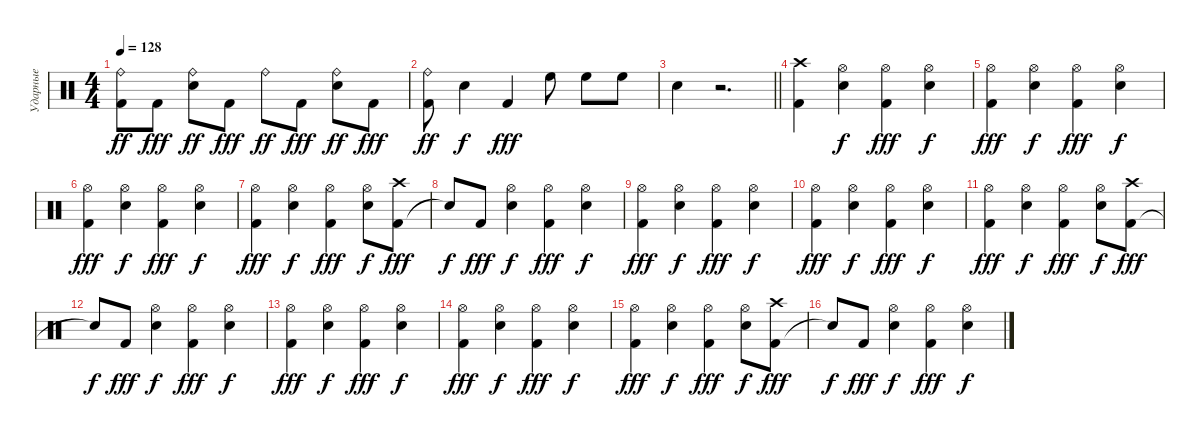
\track ("Ударные" "Ударные") {instrument percussion}
\staff {score}
\articulation defaults
\ts (4 4)
\tempo 128
\clef neutral
\ks c
("Kick (hit) 2" "Ride (bell)").8{dy ff} "Kick (hit) 2".8{dy fff} ("Snare (hit) 2" "Ride (bell)").8{dy ff} "Kick (hit) 2".8{dy fff} "Ride (bell)".8{dy ff} "Kick (hit) 2".8{dy fff} ("Snare (hit) 2" "Ride (bell)").8{dy ff} "Kick (hit) 2".8{dy fff} |
("Kick (hit) 2" "Ride (bell)").8{dy ff} "Snare (hit) 2".4{dy f} "Kick (hit) 2".4{dy fff} "High Floor Tom (hit)".8 "High Floor Tom (hit)".8 "High Floor Tom (hit)".8 |
\barLineRight lightlight "Snare (hit) 2".4
r.2{d} |
("Kick (hit) 2" "Crash high (hit)").4 ("Snare (hit) 2" "Hi-Hat (open)").4{dy f} ("Kick (hit) 2" "Hi-Hat (open)").4{dy fff} ("Snare (hit) 2" "Hi-Hat (open)").4{dy f} |
("Kick (hit) 2" "Hi-Hat (open)").4{dy fff} ("Snare (hit) 2" "Hi-Hat (open)").4{dy f} ("Kick (hit) 2" "Hi-Hat (open)").4{dy fff} ("Snare (hit) 2" "Hi-Hat (open)").4{dy f} |
("Kick (hit) 2" "Hi-Hat (open)").4{dy fff} ("Snare (hit) 2" "Hi-Hat (open)").4{dy f} ("Kick (hit) 2" "Hi-Hat (open)").4{dy fff} ("Snare (hit) 2" "Hi-Hat (open)").4{dy f} |
("Kick (hit) 2" "Hi-Hat (open)").4{dy fff} ("Snare (hit) 2" "Hi-Hat (open)").4{dy f} ("Kick (hit) 2" "Hi-Hat (open)").4{dy fff} ("Snare (hit) 2" "Hi-Hat (open)").8{dy f} ("Kick (hit) 2" "Crash high (hit)").8{dy fff} |
"Snare (hit)"{t}.8{dy f} "Kick (hit) 2".8{dy fff} ("Snare (hit) 2" "Hi-Hat (open)").4{dy f} ("Kick (hit) 2" "Hi-Hat (open)").4{dy fff} ("Snare (hit) 2" "Hi-Hat (open)").4{dy f} |
("Kick (hit) 2" "Hi-Hat (open)").4{dy fff} ("Snare (hit) 2" "Hi-Hat (open)").4{dy f} ("Kick (hit) 2" "Hi-Hat (open)").4{dy fff} ("Snare (hit) 2" "Hi-Hat (open)").4{dy f} |
("Kick (hit) 2" "Hi-Hat (open)").4{dy fff} ("Snare (hit) 2" "Hi-Hat (open)").4{dy f} ("Kick (hit) 2" "Hi-Hat (open)").4{dy fff} ("Snare (hit) 2" "Hi-Hat (open)").4{dy f} |
("Kick (hit) 2" "Hi-Hat (open)").4{dy fff} ("Snare (hit) 2" "Hi-Hat (open)").4{dy f} ("Kick (hit) 2" "Hi-Hat (open)").4{dy fff} ("Snare (hit) 2" "Hi-Hat (open)").8{dy f} ("Kick (hit) 2" "Crash high (hit)").8{dy fff} |
"Snare (hit)"{t}.8{dy f} "Kick (hit) 2".8{dy fff} ("Snare (hit) 2" "Hi-Hat (open)").4{dy f} ("Kick (hit) 2" "Hi-Hat (open)").4{dy fff} ("Snare (hit) 2" "Hi-Hat (open)").4{dy f} |
("Kick (hit) 2" "Hi-Hat (open)").4{dy fff} ("Snare (hit) 2" "Hi-Hat (open)").4{dy f} ("Kick (hit) 2" "Hi-Hat (open)").4{dy fff} ("Snare (hit) 2" "Hi-Hat (open)").4{dy f} |
("Kick (hit) 2" "Hi-Hat (open)").4{dy fff} ("Snare (hit) 2" "Hi-Hat (open)").4{dy f} ("Kick (hit) 2" "Hi-Hat (open)").4{dy fff} ("Snare (hit) 2" "Hi-Hat (open)").4{dy f} |
("Kick (hit) 2" "Hi-Hat (open)").4{dy fff} ("Snare (hit) 2" "Hi-Hat (open)").4{dy f} ("Kick (hit) 2" "Hi-Hat (open)").4{dy fff} ("Snare (hit) 2" "Hi-Hat (open)").8{dy f} ("Kick (hit) 2" "Crash high (hit)").8{dy fff} |
"Snare (hit)"{t}.8{dy f} "Kick (hit) 2".8{dy fff} ("Snare (hit) 2" "Hi-Hat (open)").4{dy f} ("Kick (hit) 2" "Hi-Hat (open)").4{dy fff} ("Snare (hit) 2" "Hi-Hat (open)").4{dy f}
